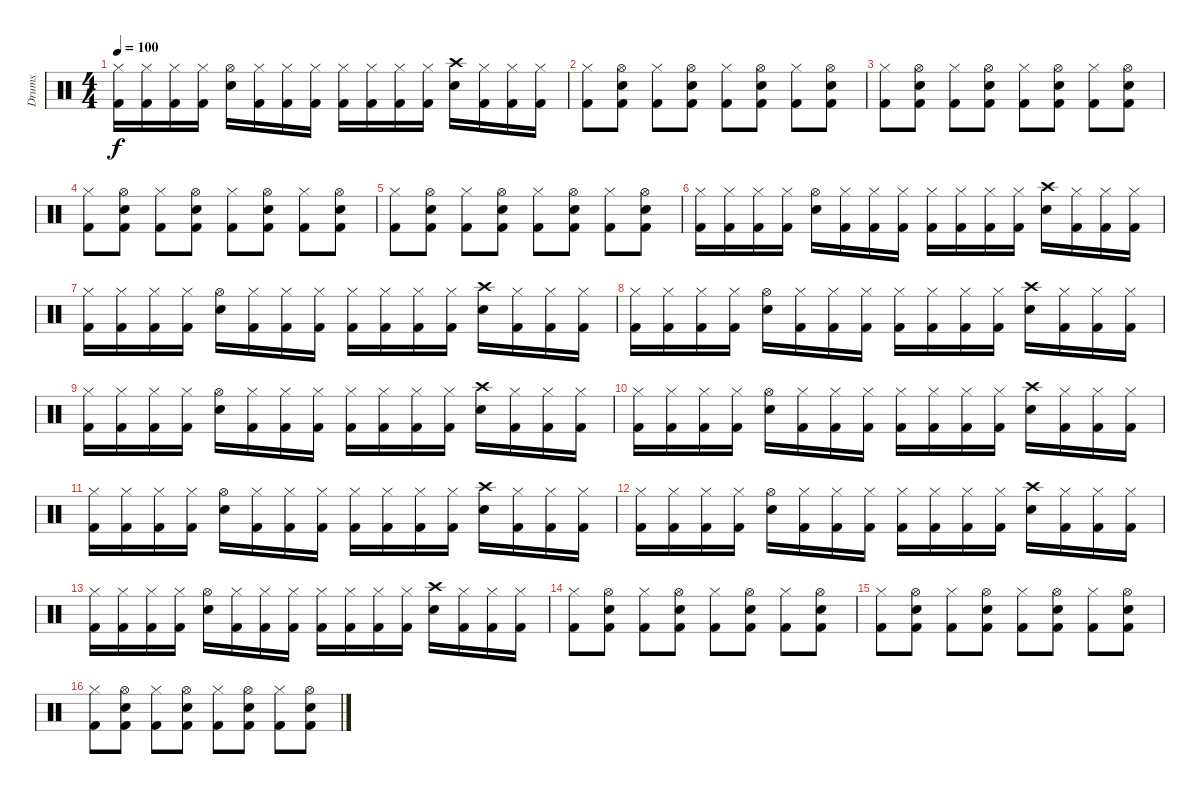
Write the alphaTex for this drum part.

\track ("Drums" "Drums") {instrument percussion}
\staff {score}
\articulation defaults
\ts (4 4)
\tempo 100
\clef neutral
\ks c
("Hi-Hat (closed)" "Kick (hit) 2").16{dy f} ("Hi-Hat (closed)" "Kick (hit) 2").16 ("Hi-Hat (closed)" "Kick (hit) 2").16 ("Hi-Hat (closed)" "Kick (hit) 2").16 ("Hi-Hat (open)" "Electric Snare (hit)").16 ("Hi-Hat (closed)" "Kick (hit) 2").16 ("Hi-Hat (closed)" "Kick (hit) 2").16 ("Hi-Hat (closed)" "Kick (hit) 2").16 ("Hi-Hat (closed)" "Kick (hit) 2").16 ("Hi-Hat (closed)" "Kick (hit) 2").16 ("Hi-Hat (closed)" "Kick (hit) 2").16 ("Hi-Hat (closed)" "Kick (hit) 2").16 ("Crash high (hit)" "Electric Snare (hit)").16 ("Hi-Hat (closed)" "Kick (hit) 2").16 ("Hi-Hat (closed)" "Kick (hit) 2").16 ("Hi-Hat (closed)" "Kick (hit) 2").16 |
("Kick (hit) 2" "Hi-Hat (closed)").8 ("Electric Snare (hit)" "Hi-Hat (open)" "Kick (hit) 2").8 ("Kick (hit) 2" "Hi-Hat (closed)").8 ("Electric Snare (hit)" "Hi-Hat (open)" "Kick (hit) 2").8 ("Kick (hit) 2" "Hi-Hat (closed)").8 ("Electric Snare (hit)" "Hi-Hat (open)" "Kick (hit) 2").8 ("Kick (hit) 2" "Hi-Hat (closed)").8 ("Electric Snare (hit)" "Hi-Hat (open)" "Kick (hit) 2").8 |
("Kick (hit) 2" "Hi-Hat (closed)").8 ("Electric Snare (hit)" "Hi-Hat (open)" "Kick (hit) 2").8 ("Kick (hit) 2" "Hi-Hat (closed)").8 ("Electric Snare (hit)" "Hi-Hat (open)" "Kick (hit) 2").8 ("Kick (hit) 2" "Hi-Hat (closed)").8 ("Electric Snare (hit)" "Hi-Hat (open)" "Kick (hit) 2").8 ("Kick (hit) 2" "Hi-Hat (closed)").8 ("Electric Snare (hit)" "Hi-Hat (open)" "Kick (hit) 2").8 |
("Kick (hit) 2" "Hi-Hat (closed)").8 ("Electric Snare (hit)" "Hi-Hat (open)" "Kick (hit) 2").8 ("Kick (hit) 2" "Hi-Hat (closed)").8 ("Electric Snare (hit)" "Hi-Hat (open)" "Kick (hit) 2").8 ("Kick (hit) 2" "Hi-Hat (closed)").8 ("Electric Snare (hit)" "Hi-Hat (open)" "Kick (hit) 2").8 ("Kick (hit) 2" "Hi-Hat (closed)").8 ("Electric Snare (hit)" "Hi-Hat (open)" "Kick (hit) 2").8 |
("Kick (hit) 2" "Hi-Hat (closed)").8 ("Electric Snare (hit)" "Hi-Hat (open)" "Kick (hit) 2").8 ("Kick (hit) 2" "Hi-Hat (closed)").8 ("Electric Snare (hit)" "Hi-Hat (open)" "Kick (hit) 2").8 ("Kick (hit) 2" "Hi-Hat (closed)").8 ("Electric Snare (hit)" "Hi-Hat (open)" "Kick (hit) 2").8 ("Kick (hit) 2" "Hi-Hat (closed)").8 ("Electric Snare (hit)" "Hi-Hat (open)" "Kick (hit) 2").8 |
("Hi-Hat (closed)" "Kick (hit) 2").16 ("Hi-Hat (closed)" "Kick (hit) 2").16 ("Hi-Hat (closed)" "Kick (hit) 2").16 ("Hi-Hat (closed)" "Kick (hit) 2").16 ("Hi-Hat (open)" "Electric Snare (hit)").16 ("Hi-Hat (closed)" "Kick (hit) 2").16 ("Hi-Hat (closed)" "Kick (hit) 2").16 ("Hi-Hat (closed)" "Kick (hit) 2").16 ("Hi-Hat (closed)" "Kick (hit) 2").16 ("Hi-Hat (closed)" "Kick (hit) 2").16 ("Hi-Hat (closed)" "Kick (hit) 2").16 ("Hi-Hat (closed)" "Kick (hit) 2").16 ("Crash high (hit)" "Electric Snare (hit)").16 ("Hi-Hat (closed)" "Kick (hit) 2").16 ("Hi-Hat (closed)" "Kick (hit) 2").16 ("Hi-Hat (closed)" "Kick (hit) 2").16 |
("Hi-Hat (closed)" "Kick (hit) 2").16 ("Hi-Hat (closed)" "Kick (hit) 2").16 ("Hi-Hat (closed)" "Kick (hit) 2").16 ("Hi-Hat (closed)" "Kick (hit) 2").16 ("Hi-Hat (open)" "Electric Snare (hit)").16 ("Hi-Hat (closed)" "Kick (hit) 2").16 ("Hi-Hat (closed)" "Kick (hit) 2").16 ("Hi-Hat (closed)" "Kick (hit) 2").16 ("Hi-Hat (closed)" "Kick (hit) 2").16 ("Hi-Hat (closed)" "Kick (hit) 2").16 ("Hi-Hat (closed)" "Kick (hit) 2").16 ("Hi-Hat (closed)" "Kick (hit) 2").16 ("Crash high (hit)" "Electric Snare (hit)").16 ("Hi-Hat (closed)" "Kick (hit) 2").16 ("Hi-Hat (closed)" "Kick (hit) 2").16 ("Hi-Hat (closed)" "Kick (hit) 2").16 |
("Hi-Hat (closed)" "Kick (hit) 2").16 ("Hi-Hat (closed)" "Kick (hit) 2").16 ("Hi-Hat (closed)" "Kick (hit) 2").16 ("Hi-Hat (closed)" "Kick (hit) 2").16 ("Hi-Hat (open)" "Electric Snare (hit)").16 ("Hi-Hat (closed)" "Kick (hit) 2").16 ("Hi-Hat (closed)" "Kick (hit) 2").16 ("Hi-Hat (closed)" "Kick (hit) 2").16 ("Hi-Hat (closed)" "Kick (hit) 2").16 ("Hi-Hat (closed)" "Kick (hit) 2").16 ("Hi-Hat (closed)" "Kick (hit) 2").16 ("Hi-Hat (closed)" "Kick (hit) 2").16 ("Crash high (hit)" "Electric Snare (hit)").16 ("Hi-Hat (closed)" "Kick (hit) 2").16 ("Hi-Hat (closed)" "Kick (hit) 2").16 ("Hi-Hat (closed)" "Kick (hit) 2").16 |
("Hi-Hat (closed)" "Kick (hit) 2").16 ("Hi-Hat (closed)" "Kick (hit) 2").16 ("Hi-Hat (closed)" "Kick (hit) 2").16 ("Hi-Hat (closed)" "Kick (hit) 2").16 ("Hi-Hat (open)" "Electric Snare (hit)").16 ("Hi-Hat (closed)" "Kick (hit) 2").16 ("Hi-Hat (closed)" "Kick (hit) 2").16 ("Hi-Hat (closed)" "Kick (hit) 2").16 ("Hi-Hat (closed)" "Kick (hit) 2").16 ("Hi-Hat (closed)" "Kick (hit) 2").16 ("Hi-Hat (closed)" "Kick (hit) 2").16 ("Hi-Hat (closed)" "Kick (hit) 2").16 ("Crash high (hit)" "Electric Snare (hit)").16 ("Hi-Hat (closed)" "Kick (hit) 2").16 ("Hi-Hat (closed)" "Kick (hit) 2").16 ("Hi-Hat (closed)" "Kick (hit) 2").16 |
("Hi-Hat (closed)" "Kick (hit) 2").16 ("Hi-Hat (closed)" "Kick (hit) 2").16 ("Hi-Hat (closed)" "Kick (hit) 2").16 ("Hi-Hat (closed)" "Kick (hit) 2").16 ("Hi-Hat (open)" "Electric Snare (hit)").16 ("Hi-Hat (closed)" "Kick (hit) 2").16 ("Hi-Hat (closed)" "Kick (hit) 2").16 ("Hi-Hat (closed)" "Kick (hit) 2").16 ("Hi-Hat (closed)" "Kick (hit) 2").16 ("Hi-Hat (closed)" "Kick (hit) 2").16 ("Hi-Hat (closed)" "Kick (hit) 2").16 ("Hi-Hat (closed)" "Kick (hit) 2").16 ("Crash high (hit)" "Electric Snare (hit)").16 ("Hi-Hat (closed)" "Kick (hit) 2").16 ("Hi-Hat (closed)" "Kick (hit) 2").16 ("Hi-Hat (closed)" "Kick (hit) 2").16 |
("Hi-Hat (closed)" "Kick (hit) 2").16 ("Hi-Hat (closed)" "Kick (hit) 2").16 ("Hi-Hat (closed)" "Kick (hit) 2").16 ("Hi-Hat (closed)" "Kick (hit) 2").16 ("Hi-Hat (open)" "Electric Snare (hit)").16 ("Hi-Hat (closed)" "Kick (hit) 2").16 ("Hi-Hat (closed)" "Kick (hit) 2").16 ("Hi-Hat (closed)" "Kick (hit) 2").16 ("Hi-Hat (closed)" "Kick (hit) 2").16 ("Hi-Hat (closed)" "Kick (hit) 2").16 ("Hi-Hat (closed)" "Kick (hit) 2").16 ("Hi-Hat (closed)" "Kick (hit) 2").16 ("Crash high (hit)" "Electric Snare (hit)").16 ("Hi-Hat (closed)" "Kick (hit) 2").16 ("Hi-Hat (closed)" "Kick (hit) 2").16 ("Hi-Hat (closed)" "Kick (hit) 2").16 |
("Hi-Hat (closed)" "Kick (hit) 2").16 ("Hi-Hat (closed)" "Kick (hit) 2").16 ("Hi-Hat (closed)" "Kick (hit) 2").16 ("Hi-Hat (closed)" "Kick (hit) 2").16 ("Hi-Hat (open)" "Electric Snare (hit)").16 ("Hi-Hat (closed)" "Kick (hit) 2").16 ("Hi-Hat (closed)" "Kick (hit) 2").16 ("Hi-Hat (closed)" "Kick (hit) 2").16 ("Hi-Hat (closed)" "Kick (hit) 2").16 ("Hi-Hat (closed)" "Kick (hit) 2").16 ("Hi-Hat (closed)" "Kick (hit) 2").16 ("Hi-Hat (closed)" "Kick (hit) 2").16 ("Crash high (hit)" "Electric Snare (hit)").16 ("Hi-Hat (closed)" "Kick (hit) 2").16 ("Hi-Hat (closed)" "Kick (hit) 2").16 ("Hi-Hat (closed)" "Kick (hit) 2").16 |
("Hi-Hat (closed)" "Kick (hit) 2").16 ("Hi-Hat (closed)" "Kick (hit) 2").16 ("Hi-Hat (closed)" "Kick (hit) 2").16 ("Hi-Hat (closed)" "Kick (hit) 2").16 ("Hi-Hat (open)" "Electric Snare (hit)").16 ("Hi-Hat (closed)" "Kick (hit) 2").16 ("Hi-Hat (closed)" "Kick (hit) 2").16 ("Hi-Hat (closed)" "Kick (hit) 2").16 ("Hi-Hat (closed)" "Kick (hit) 2").16 ("Hi-Hat (closed)" "Kick (hit) 2").16 ("Hi-Hat (closed)" "Kick (hit) 2").16 ("Hi-Hat (closed)" "Kick (hit) 2").16 ("Crash high (hit)" "Electric Snare (hit)").16 ("Hi-Hat (closed)" "Kick (hit) 2").16 ("Hi-Hat (closed)" "Kick (hit) 2").16 ("Hi-Hat (closed)" "Kick (hit) 2").16 |
("Kick (hit) 2" "Hi-Hat (closed)").8 ("Electric Snare (hit)" "Hi-Hat (open)" "Kick (hit) 2").8 ("Kick (hit) 2" "Hi-Hat (closed)").8 ("Electric Snare (hit)" "Hi-Hat (open)" "Kick (hit) 2").8 ("Kick (hit) 2" "Hi-Hat (closed)").8 ("Electric Snare (hit)" "Hi-Hat (open)" "Kick (hit) 2").8 ("Kick (hit) 2" "Hi-Hat (closed)").8 ("Electric Snare (hit)" "Hi-Hat (open)" "Kick (hit) 2").8 |
("Kick (hit) 2" "Hi-Hat (closed)").8 ("Electric Snare (hit)" "Hi-Hat (open)" "Kick (hit) 2").8 ("Kick (hit) 2" "Hi-Hat (closed)").8 ("Electric Snare (hit)" "Hi-Hat (open)" "Kick (hit) 2").8 ("Kick (hit) 2" "Hi-Hat (closed)").8 ("Electric Snare (hit)" "Hi-Hat (open)" "Kick (hit) 2").8 ("Kick (hit) 2" "Hi-Hat (closed)").8 ("Electric Snare (hit)" "Hi-Hat (open)" "Kick (hit) 2").8 |
("Kick (hit) 2" "Hi-Hat (closed)").8 ("Electric Snare (hit)" "Hi-Hat (open)" "Kick (hit) 2").8 ("Kick (hit) 2" "Hi-Hat (closed)").8 ("Electric Snare (hit)" "Hi-Hat (open)" "Kick (hit) 2").8 ("Kick (hit) 2" "Hi-Hat (closed)").8 ("Electric Snare (hit)" "Hi-Hat (open)" "Kick (hit) 2").8 ("Kick (hit) 2" "Hi-Hat (closed)").8 ("Electric Snare (hit)" "Hi-Hat (open)" "Kick (hit) 2").8
